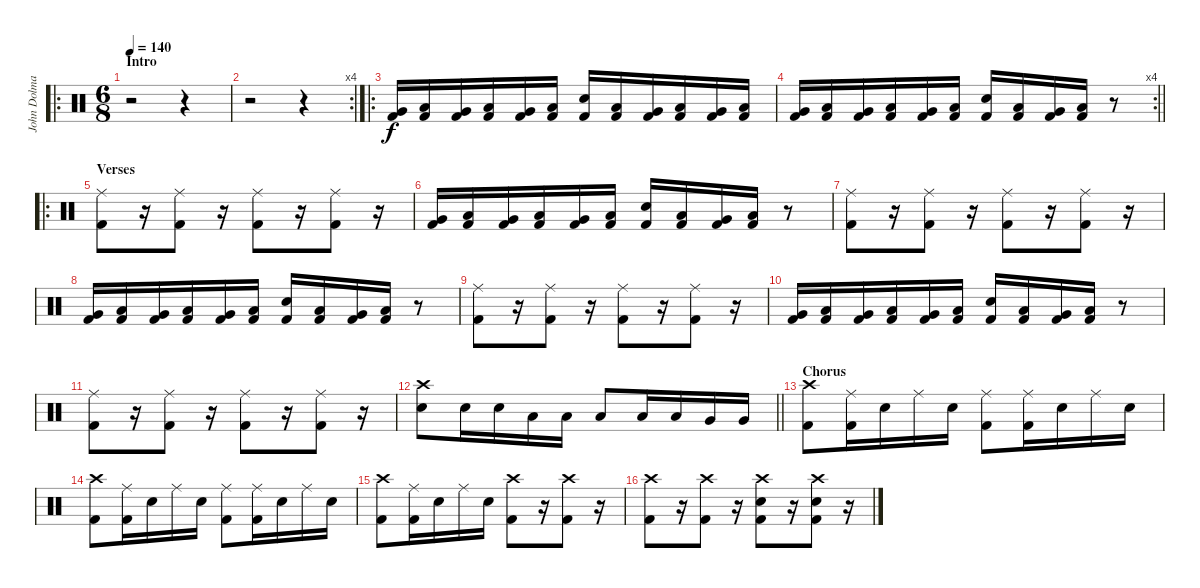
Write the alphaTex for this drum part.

\track ("John Dolmayan" "John Dolma") {instrument percussion}
\staff {score}
\articulation defaults
\ro
\ts (6 8)
\section ("" "Intro")
\tempo 140
\clef neutral
\ks c
r.2{dy f} r.4 |
\rc 4
r.2 r.4 |
\ro
("Very Low Tom (hit)" "Kick (hit) 2").16 ("Low Tom (hit)" "Kick (hit) 2").16 ("Very Low Tom (hit)" "Kick (hit) 2").16 ("Low Tom (hit)" "Kick (hit) 2").16 ("Very Low Tom (hit)" "Kick (hit) 2").16 ("Low Tom (hit)" "Kick (hit) 2").16 ("Electric Snare (hit)" "Kick (hit) 2").16 ("Low Tom (hit)" "Kick (hit) 2").16 ("Very Low Tom (hit)" "Kick (hit) 2").16 ("Low Tom (hit)" "Kick (hit) 2").16 ("Very Low Tom (hit)" "Kick (hit) 2").16 ("Low Tom (hit)" "Kick (hit) 2").16 |
\rc 4
\barLineRight lightlight
("Very Low Tom (hit)" "Kick (hit) 2").16 ("Low Tom (hit)" "Kick (hit) 2").16 ("Very Low Tom (hit)" "Kick (hit) 2").16 ("Low Tom (hit)" "Kick (hit) 2").16 ("Very Low Tom (hit)" "Kick (hit) 2").16 ("Low Tom (hit)" "Kick (hit) 2").16 ("Electric Snare (hit)" "Kick (hit) 2").16 ("Low Tom (hit)" "Kick (hit) 2").16 ("Very Low Tom (hit)" "Kick (hit) 2").16 ("Low Tom (hit)" "Kick (hit) 2").16 r.8 |
\ro
\section ("" "Verses")
("Ride (middle)" "Kick (hit) 2").8 r.16 ("Ride (middle)" "Kick (hit) 2").8 r.16 ("Ride (middle)" "Kick (hit) 2").8 r.16 ("Ride (middle)" "Kick (hit) 2").8 r.16 |
("Very Low Tom (hit)" "Kick (hit) 2").16 ("Low Tom (hit)" "Kick (hit) 2").16 ("Very Low Tom (hit)" "Kick (hit) 2").16 ("Low Tom (hit)" "Kick (hit) 2").16 ("Very Low Tom (hit)" "Kick (hit) 2").16 ("Low Tom (hit)" "Kick (hit) 2").16 ("Electric Snare (hit)" "Kick (hit) 2").16 ("Low Tom (hit)" "Kick (hit) 2").16 ("Very Low Tom (hit)" "Kick (hit) 2").16 ("Low Tom (hit)" "Kick (hit) 2").16 r.8 |
("Ride (middle)" "Kick (hit) 2").8 r.16 ("Ride (middle)" "Kick (hit) 2").8 r.16 ("Ride (middle)" "Kick (hit) 2").8 r.16 ("Ride (middle)" "Kick (hit) 2").8 r.16 |
("Very Low Tom (hit)" "Kick (hit) 2").16 ("Low Tom (hit)" "Kick (hit) 2").16 ("Very Low Tom (hit)" "Kick (hit) 2").16 ("Low Tom (hit)" "Kick (hit) 2").16 ("Very Low Tom (hit)" "Kick (hit) 2").16 ("Low Tom (hit)" "Kick (hit) 2").16 ("Electric Snare (hit)" "Kick (hit) 2").16 ("Low Tom (hit)" "Kick (hit) 2").16 ("Very Low Tom (hit)" "Kick (hit) 2").16 ("Low Tom (hit)" "Kick (hit) 2").16 r.8 |
("Ride (middle)" "Kick (hit) 2").8 r.16 ("Ride (middle)" "Kick (hit) 2").8 r.16 ("Ride (middle)" "Kick (hit) 2").8 r.16 ("Ride (middle)" "Kick (hit) 2").8 r.16 |
("Very Low Tom (hit)" "Kick (hit) 2").16 ("Low Tom (hit)" "Kick (hit) 2").16 ("Very Low Tom (hit)" "Kick (hit) 2").16 ("Low Tom (hit)" "Kick (hit) 2").16 ("Very Low Tom (hit)" "Kick (hit) 2").16 ("Low Tom (hit)" "Kick (hit) 2").16 ("Electric Snare (hit)" "Kick (hit) 2").16 ("Low Tom (hit)" "Kick (hit) 2").16 ("Very Low Tom (hit)" "Kick (hit) 2").16 ("Low Tom (hit)" "Kick (hit) 2").16 r.8 |
("Ride (middle)" "Kick (hit) 2").8 r.16 ("Ride (middle)" "Kick (hit) 2").8 r.16 ("Ride (middle)" "Kick (hit) 2").8 r.16 ("Ride (middle)" "Kick (hit) 2").8 r.16 |
\barLineRight lightlight
("Crash high (hit)" "Electric Snare (hit)").8 "Electric Snare (hit)".16 "Electric Snare (hit)".16 "Low Tom (hit)".16 "Low Tom (hit)".16 "Low Tom (hit)".8 "Low Tom (hit)".16 "Low Tom (hit)".16 "Very Low Tom (hit)".16 "Very Low Tom (hit)".16 |
\section ("" "Chorus")
("Crash high (hit)" "Kick (hit) 2").8 ("Ride (middle)" "Kick (hit) 2").16 "Electric Snare (hit)".16 "Ride (middle)".16 "Electric Snare (hit)".16 ("Ride (middle)" "Kick (hit) 2").8 ("Ride (middle)" "Kick (hit) 2").16 "Electric Snare (hit)".16 "Ride (middle)".16 "Electric Snare (hit)".16 |
("Crash high (hit)" "Kick (hit) 2").8 ("Ride (middle)" "Kick (hit) 2").16 "Electric Snare (hit)".16 "Ride (middle)".16 "Electric Snare (hit)".16 ("Ride (middle)" "Kick (hit) 2").8 ("Ride (middle)" "Kick (hit) 2").16 "Electric Snare (hit)".16 "Ride (middle)".16 "Electric Snare (hit)".16 |
("Crash high (hit)" "Kick (hit) 2").8 ("Ride (middle)" "Kick (hit) 2").16 "Electric Snare (hit)".16 "Ride (middle)".16 "Electric Snare (hit)".16 ("Crash high (hit)" "Kick (hit) 2").8 r.16 ("Crash high (hit)" "Kick (hit) 2").8 r.16 |
("Crash high (hit)" "Kick (hit) 2").8 r.16 ("Crash high (hit)" "Kick (hit) 2").8 r.16 ("Electric Snare (hit)" "Crash high (hit)" "Kick (hit) 2").8 r.16 ("Electric Snare (hit)" "Crash high (hit)" "Kick (hit) 2").8 r.16
